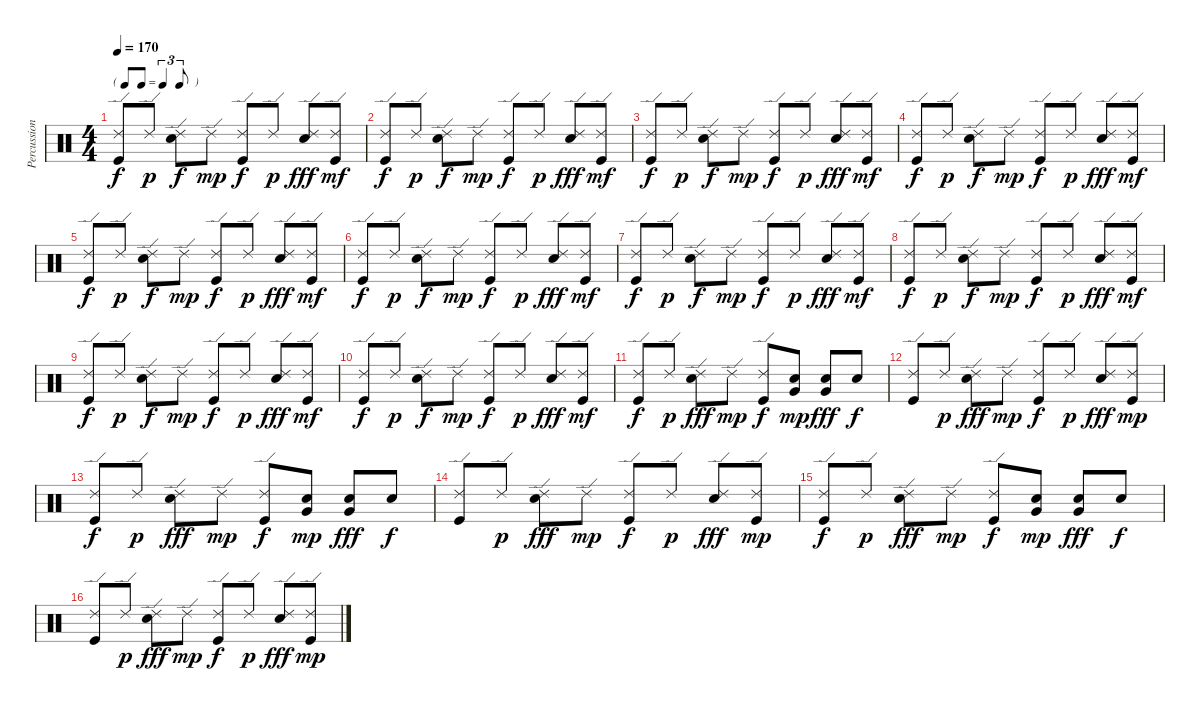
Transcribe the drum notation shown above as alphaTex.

\track ("Percussion" "Percussion") {instrument percussion}
\staff {score}
\articulation defaults
\ts (4 4)
\tf triplet8th
\tempo 170
\clef neutral
\ks c
("Ride (edge) 2" "Kick (hit)").8{dy f} "Ride (edge) 2".8{dy p} ("Ride (edge) 2" "Snare (hit) 2").8{dy f} "Ride (edge) 2".8{dy mp} ("Ride (edge) 2" "Kick (hit)").8{dy f} "Ride (edge) 2".8{dy p} ("Ride (edge) 2" "Snare (hit) 2").8{dy fff} ("Ride (edge) 2" "Kick (hit)").8{dy mf} |
("Ride (edge) 2" "Kick (hit)").8{dy f} "Ride (edge) 2".8{dy p} ("Ride (edge) 2" "Snare (hit) 2").8{dy f} "Ride (edge) 2".8{dy mp} ("Ride (edge) 2" "Kick (hit)").8{dy f} "Ride (edge) 2".8{dy p} ("Ride (edge) 2" "Snare (hit) 2").8{dy fff} ("Ride (edge) 2" "Kick (hit)").8{dy mf} |
("Ride (edge) 2" "Kick (hit)").8{dy f} "Ride (edge) 2".8{dy p} ("Ride (edge) 2" "Snare (hit) 2").8{dy f} "Ride (edge) 2".8{dy mp} ("Ride (edge) 2" "Kick (hit)").8{dy f} "Ride (edge) 2".8{dy p} ("Ride (edge) 2" "Snare (hit) 2").8{dy fff} ("Ride (edge) 2" "Kick (hit)").8{dy mf} |
("Ride (edge) 2" "Kick (hit)").8{dy f} "Ride (edge) 2".8{dy p} ("Ride (edge) 2" "Snare (hit) 2").8{dy f} "Ride (edge) 2".8{dy mp} ("Ride (edge) 2" "Kick (hit)").8{dy f} "Ride (edge) 2".8{dy p} ("Ride (edge) 2" "Snare (hit) 2").8{dy fff} ("Ride (edge) 2" "Kick (hit)").8{dy mf} |
("Ride (edge) 2" "Kick (hit)").8{dy f} "Ride (edge) 2".8{dy p} ("Ride (edge) 2" "Snare (hit) 2").8{dy f} "Ride (edge) 2".8{dy mp} ("Ride (edge) 2" "Kick (hit)").8{dy f} "Ride (edge) 2".8{dy p} ("Ride (edge) 2" "Snare (hit) 2").8{dy fff} ("Ride (edge) 2" "Kick (hit)").8{dy mf} |
("Ride (edge) 2" "Kick (hit)").8{dy f} "Ride (edge) 2".8{dy p} ("Ride (edge) 2" "Snare (hit) 2").8{dy f} "Ride (edge) 2".8{dy mp} ("Ride (edge) 2" "Kick (hit)").8{dy f} "Ride (edge) 2".8{dy p} ("Ride (edge) 2" "Snare (hit) 2").8{dy fff} ("Ride (edge) 2" "Kick (hit)").8{dy mf} |
("Ride (edge) 2" "Kick (hit)").8{dy f} "Ride (edge) 2".8{dy p} ("Ride (edge) 2" "Snare (hit) 2").8{dy f} "Ride (edge) 2".8{dy mp} ("Ride (edge) 2" "Kick (hit)").8{dy f} "Ride (edge) 2".8{dy p} ("Ride (edge) 2" "Snare (hit) 2").8{dy fff} ("Ride (edge) 2" "Kick (hit)").8{dy mf} |
("Ride (edge) 2" "Kick (hit)").8{dy f} "Ride (edge) 2".8{dy p} ("Ride (edge) 2" "Snare (hit) 2").8{dy f} "Ride (edge) 2".8{dy mp} ("Ride (edge) 2" "Kick (hit)").8{dy f} "Ride (edge) 2".8{dy p} ("Ride (edge) 2" "Snare (hit) 2").8{dy fff} ("Ride (edge) 2" "Kick (hit)").8{dy mf} |
("Ride (edge) 2" "Kick (hit)").8{dy f} "Ride (edge) 2".8{dy p} ("Ride (edge) 2" "Snare (hit) 2").8{dy f} "Ride (edge) 2".8{dy mp} ("Ride (edge) 2" "Kick (hit)").8{dy f} "Ride (edge) 2".8{dy p} ("Ride (edge) 2" "Snare (hit) 2").8{dy fff} ("Ride (edge) 2" "Kick (hit)").8{dy mf} |
("Ride (edge) 2" "Kick (hit)").8{dy f} "Ride (edge) 2".8{dy p} ("Ride (edge) 2" "Snare (hit) 2").8{dy f} "Ride (edge) 2".8{dy mp} ("Ride (edge) 2" "Kick (hit)").8{dy f} "Ride (edge) 2".8{dy p} ("Ride (edge) 2" "Snare (hit) 2").8{dy fff} ("Ride (edge) 2" "Kick (hit)").8{dy mf} |
("Ride (edge) 2" "Kick (hit)").8{dy f} "Ride (edge) 2".8{dy p} ("Ride (edge) 2" "Snare (hit) 2").8{dy fff} "Ride (edge) 2".8{dy mp} ("Ride (edge) 2" "Kick (hit)").8{dy f} ("Very Low Tom (hit)" "Snare (hit) 2").8{dy mp} ("Very Low Tom (hit)" "Snare (hit) 2").8{dy fff} "Snare (hit) 2".8{dy f} |
("Ride (edge) 2" "Kick (hit)").8 "Ride (edge) 2".8{dy p} ("Ride (edge) 2" "Snare (hit) 2").8{dy fff} "Ride (edge) 2".8{dy mp} ("Ride (edge) 2" "Kick (hit)").8{dy f} "Ride (edge) 2".8{dy p} ("Ride (edge) 2" "Snare (hit) 2").8{dy fff} ("Ride (edge) 2" "Kick (hit)").8{dy mp} |
("Ride (edge) 2" "Kick (hit)").8{dy f} "Ride (edge) 2".8{dy p} ("Ride (edge) 2" "Snare (hit) 2").8{dy fff} "Ride (edge) 2".8{dy mp} ("Ride (edge) 2" "Kick (hit)").8{dy f} ("Very Low Tom (hit)" "Snare (hit) 2").8{dy mp} ("Very Low Tom (hit)" "Snare (hit) 2").8{dy fff} "Snare (hit) 2".8{dy f} |
("Ride (edge) 2" "Kick (hit)").8 "Ride (edge) 2".8{dy p} ("Ride (edge) 2" "Snare (hit) 2").8{dy fff} "Ride (edge) 2".8{dy mp} ("Ride (edge) 2" "Kick (hit)").8{dy f} "Ride (edge) 2".8{dy p} ("Ride (edge) 2" "Snare (hit) 2").8{dy fff} ("Ride (edge) 2" "Kick (hit)").8{dy mp} |
("Ride (edge) 2" "Kick (hit)").8{dy f} "Ride (edge) 2".8{dy p} ("Ride (edge) 2" "Snare (hit) 2").8{dy fff} "Ride (edge) 2".8{dy mp} ("Ride (edge) 2" "Kick (hit)").8{dy f} ("Very Low Tom (hit)" "Snare (hit) 2").8{dy mp} ("Very Low Tom (hit)" "Snare (hit) 2").8{dy fff} "Snare (hit) 2".8{dy f} |
("Ride (edge) 2" "Kick (hit)").8 "Ride (edge) 2".8{dy p} ("Ride (edge) 2" "Snare (hit) 2").8{dy fff} "Ride (edge) 2".8{dy mp} ("Ride (edge) 2" "Kick (hit)").8{dy f} "Ride (edge) 2".8{dy p} ("Ride (edge) 2" "Snare (hit) 2").8{dy fff} ("Ride (edge) 2" "Kick (hit)").8{dy mp}
